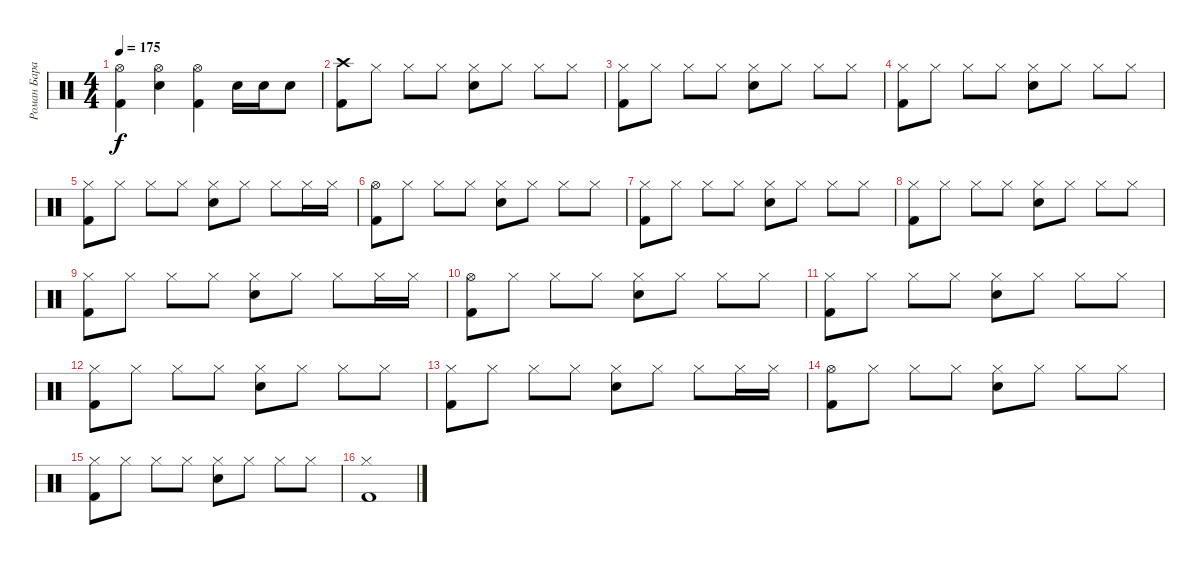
\track ("Роман Баранюк" "Роман Бара") {instrument percussion}
\staff {score}
\articulation defaults
\ts (4 4)
\tempo 175
\clef neutral
\ks c
("Hi-Hat (open)" "Kick (hit) 2").4{dy f} ("Hi-Hat (open)" "Snare (hit) 2").4 ("Hi-Hat (open)" "Kick (hit) 2").4 "Snare (hit) 2".16 "Snare (hit) 2".16 "Snare (hit) 2".8 |
("Crash high (hit)" "Kick (hit) 2").8 "Hi-Hat (closed)".8 "Hi-Hat (closed)".8 "Hi-Hat (closed)".8 ("Hi-Hat (closed)" "Snare (hit) 2").8 "Hi-Hat (closed)".8 "Hi-Hat (closed)".8 "Hi-Hat (closed)".8 |
("Hi-Hat (closed)" "Kick (hit) 2").8 "Hi-Hat (closed)".8 "Hi-Hat (closed)".8 "Hi-Hat (closed)".8 ("Hi-Hat (closed)" "Snare (hit) 2").8 "Hi-Hat (closed)".8 "Hi-Hat (closed)".8 "Hi-Hat (closed)".8 |
("Hi-Hat (closed)" "Kick (hit) 2").8 "Hi-Hat (closed)".8 "Hi-Hat (closed)".8 "Hi-Hat (closed)".8 ("Hi-Hat (closed)" "Snare (hit) 2").8 "Hi-Hat (closed)".8 "Hi-Hat (closed)".8 "Hi-Hat (closed)".8 |
("Hi-Hat (closed)" "Kick (hit) 2").8 "Hi-Hat (closed)".8 "Hi-Hat (closed)".8 "Hi-Hat (closed)".8 ("Hi-Hat (closed)" "Snare (hit) 2").8 "Hi-Hat (closed)".8 "Hi-Hat (closed)".8 "Hi-Hat (closed)".16 "Hi-Hat (closed)".16 |
("Hi-Hat (open)" "Kick (hit) 2").8 "Hi-Hat (closed)".8 "Hi-Hat (closed)".8 "Hi-Hat (closed)".8 ("Hi-Hat (closed)" "Snare (hit) 2").8 "Hi-Hat (closed)".8 "Hi-Hat (closed)".8 "Hi-Hat (closed)".8 |
("Hi-Hat (closed)" "Kick (hit) 2").8 "Hi-Hat (closed)".8 "Hi-Hat (closed)".8 "Hi-Hat (closed)".8 ("Hi-Hat (closed)" "Snare (hit) 2").8 "Hi-Hat (closed)".8 "Hi-Hat (closed)".8 "Hi-Hat (closed)".8 |
("Hi-Hat (closed)" "Kick (hit) 2").8 "Hi-Hat (closed)".8 "Hi-Hat (closed)".8 "Hi-Hat (closed)".8 ("Hi-Hat (closed)" "Snare (hit) 2").8 "Hi-Hat (closed)".8 "Hi-Hat (closed)".8 "Hi-Hat (closed)".8 |
("Hi-Hat (closed)" "Kick (hit) 2").8 "Hi-Hat (closed)".8 "Hi-Hat (closed)".8 "Hi-Hat (closed)".8 ("Hi-Hat (closed)" "Snare (hit) 2").8 "Hi-Hat (closed)".8 "Hi-Hat (closed)".8 "Hi-Hat (closed)".16 "Hi-Hat (closed)".16 |
("Hi-Hat (open)" "Kick (hit) 2").8 "Hi-Hat (closed)".8 "Hi-Hat (closed)".8 "Hi-Hat (closed)".8 ("Hi-Hat (closed)" "Snare (hit) 2").8 "Hi-Hat (closed)".8 "Hi-Hat (closed)".8 "Hi-Hat (closed)".8 |
("Hi-Hat (closed)" "Kick (hit) 2").8 "Hi-Hat (closed)".8 "Hi-Hat (closed)".8 "Hi-Hat (closed)".8 ("Hi-Hat (closed)" "Snare (hit) 2").8 "Hi-Hat (closed)".8 "Hi-Hat (closed)".8 "Hi-Hat (closed)".8 |
("Hi-Hat (closed)" "Kick (hit) 2").8 "Hi-Hat (closed)".8 "Hi-Hat (closed)".8 "Hi-Hat (closed)".8 ("Hi-Hat (closed)" "Snare (hit) 2").8 "Hi-Hat (closed)".8 "Hi-Hat (closed)".8 "Hi-Hat (closed)".8 |
("Hi-Hat (closed)" "Kick (hit) 2").8 "Hi-Hat (closed)".8 "Hi-Hat (closed)".8 "Hi-Hat (closed)".8 ("Hi-Hat (closed)" "Snare (hit) 2").8 "Hi-Hat (closed)".8 "Hi-Hat (closed)".8 "Hi-Hat (closed)".16 "Hi-Hat (closed)".16 |
("Hi-Hat (open)" "Kick (hit) 2").8 "Hi-Hat (closed)".8 "Hi-Hat (closed)".8 "Hi-Hat (closed)".8 ("Hi-Hat (closed)" "Snare (hit) 2").8 "Hi-Hat (closed)".8 "Hi-Hat (closed)".8 "Hi-Hat (closed)".8 |
("Hi-Hat (closed)" "Kick (hit) 2").8 "Hi-Hat (closed)".8 "Hi-Hat (closed)".8 "Hi-Hat (closed)".8 ("Hi-Hat (closed)" "Snare (hit) 2").8 "Hi-Hat (closed)".8 "Hi-Hat (closed)".8 "Hi-Hat (closed)".8 |
("Hi-Hat (closed)" "Kick (hit) 2").1
